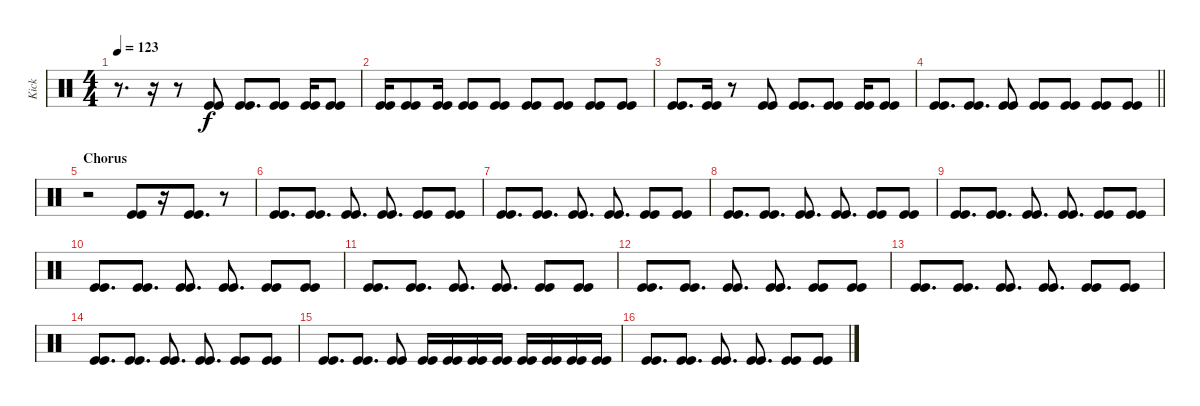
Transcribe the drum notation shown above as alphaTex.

\track ("Kick" "Kick") {instrument percussion}
\staff {score}
\articulation defaults
\ts (4 4)
\tempo 123
\clef neutral
\ks c
r.8{d dy f} r.16 r.8 ("Kick (hit)" "Kick (hit)").8 ("Kick (hit)" "Kick (hit)").8{d} ("Kick (hit)" "Kick (hit)").8 ("Kick (hit)" "Kick (hit)").16 ("Kick (hit)" "Kick (hit)").8 |
("Kick (hit)" "Kick (hit)").16 ("Kick (hit)" "Kick (hit)").8 ("Kick (hit)" "Kick (hit)").16 ("Kick (hit)" "Kick (hit)").8 ("Kick (hit)" "Kick (hit)").8 ("Kick (hit)" "Kick (hit)").8 ("Kick (hit)" "Kick (hit)").8 ("Kick (hit)" "Kick (hit)").8 ("Kick (hit)" "Kick (hit)").8 |
("Kick (hit)" "Kick (hit)").8{d} ("Kick (hit)" "Kick (hit)").16 r.8 ("Kick (hit)" "Kick (hit)").8 ("Kick (hit)" "Kick (hit)").8{d} ("Kick (hit)" "Kick (hit)").8 ("Kick (hit)" "Kick (hit)").16 ("Kick (hit)" "Kick (hit)").8 |
\barLineRight lightlight
("Kick (hit)" "Kick (hit)").8{d} ("Kick (hit)" "Kick (hit)").8{d} ("Kick (hit)" "Kick (hit)").8 ("Kick (hit)" "Kick (hit)").8 ("Kick (hit)" "Kick (hit)").8 ("Kick (hit)" "Kick (hit)").8 ("Kick (hit)" "Kick (hit)").8 |
\section ("" "Chorus")
r.2 ("Kick (hit)" "Kick (hit)").8 r.16 ("Kick (hit)" "Kick (hit)").8{d} r.8 |
("Kick (hit)" "Kick (hit)").8{d} ("Kick (hit)" "Kick (hit)").8{d} ("Kick (hit)" "Kick (hit)").8{d} ("Kick (hit)" "Kick (hit)").8{d} ("Kick (hit)" "Kick (hit)").8 ("Kick (hit)" "Kick (hit)").8 |
("Kick (hit)" "Kick (hit)").8{d} ("Kick (hit)" "Kick (hit)").8{d} ("Kick (hit)" "Kick (hit)").8{d} ("Kick (hit)" "Kick (hit)").8{d} ("Kick (hit)" "Kick (hit)").8 ("Kick (hit)" "Kick (hit)").8 |
("Kick (hit)" "Kick (hit)").8{d} ("Kick (hit)" "Kick (hit)").8{d} ("Kick (hit)" "Kick (hit)").8{d} ("Kick (hit)" "Kick (hit)").8{d} ("Kick (hit)" "Kick (hit)").8 ("Kick (hit)" "Kick (hit)").8 |
("Kick (hit)" "Kick (hit)").8{d} ("Kick (hit)" "Kick (hit)").8{d} ("Kick (hit)" "Kick (hit)").8{d} ("Kick (hit)" "Kick (hit)").8{d} ("Kick (hit)" "Kick (hit)").8 ("Kick (hit)" "Kick (hit)").8 |
("Kick (hit)" "Kick (hit)").8{d} ("Kick (hit)" "Kick (hit)").8{d} ("Kick (hit)" "Kick (hit)").8{d} ("Kick (hit)" "Kick (hit)").8{d} ("Kick (hit)" "Kick (hit)").8 ("Kick (hit)" "Kick (hit)").8 |
("Kick (hit)" "Kick (hit)").8{d} ("Kick (hit)" "Kick (hit)").8{d} ("Kick (hit)" "Kick (hit)").8{d} ("Kick (hit)" "Kick (hit)").8{d} ("Kick (hit)" "Kick (hit)").8 ("Kick (hit)" "Kick (hit)").8 |
("Kick (hit)" "Kick (hit)").8{d} ("Kick (hit)" "Kick (hit)").8{d} ("Kick (hit)" "Kick (hit)").8{d} ("Kick (hit)" "Kick (hit)").8{d} ("Kick (hit)" "Kick (hit)").8 ("Kick (hit)" "Kick (hit)").8 |
("Kick (hit)" "Kick (hit)").8{d} ("Kick (hit)" "Kick (hit)").8{d} ("Kick (hit)" "Kick (hit)").8{d} ("Kick (hit)" "Kick (hit)").8{d} ("Kick (hit)" "Kick (hit)").8 ("Kick (hit)" "Kick (hit)").8 |
("Kick (hit)" "Kick (hit)").8{d} ("Kick (hit)" "Kick (hit)").8{d} ("Kick (hit)" "Kick (hit)").8{d} ("Kick (hit)" "Kick (hit)").8{d} ("Kick (hit)" "Kick (hit)").8 ("Kick (hit)" "Kick (hit)").8 |
("Kick (hit)" "Kick (hit)").8{d} ("Kick (hit)" "Kick (hit)").8{d} ("Kick (hit)" "Kick (hit)").8 ("Kick (hit)" "Kick (hit)").16 ("Kick (hit)" "Kick (hit)").16 ("Kick (hit)" "Kick (hit)").16 ("Kick (hit)" "Kick (hit)").16 ("Kick (hit)" "Kick (hit)").16 ("Kick (hit)" "Kick (hit)").16 ("Kick (hit)" "Kick (hit)").16 ("Kick (hit)" "Kick (hit)").16 |
("Kick (hit)" "Kick (hit)").8{d} ("Kick (hit)" "Kick (hit)").8{d} ("Kick (hit)" "Kick (hit)").8{d} ("Kick (hit)" "Kick (hit)").8{d} ("Kick (hit)" "Kick (hit)").8 ("Kick (hit)" "Kick (hit)").8
